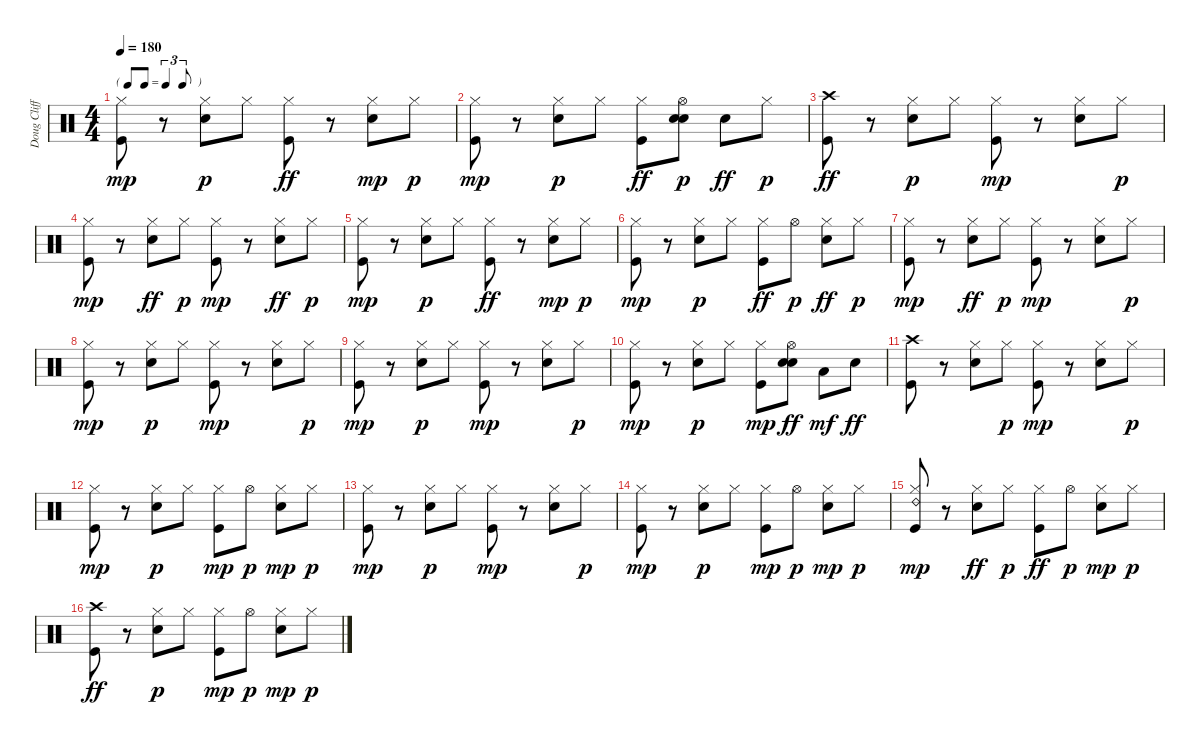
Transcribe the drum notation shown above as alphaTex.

\track ("Doug Clifford" "Doug Cliff") {instrument percussion}
\staff {score}
\articulation defaults
\ts (4 4)
\tf triplet8th
\tempo 180
\clef neutral
\ks c
("Kick (hit)" "Hi-Hat (closed)").8{dy mp} r.8 ("Snare (hit) 2" "Hi-Hat (closed)").8{dy p} "Hi-Hat (closed)".8 ("Hi-Hat (closed)" "Kick (hit)").8{dy ff} r.8 ("Snare (hit) 2" "Hi-Hat (closed)").8{dy mp} "Hi-Hat (closed)".8{dy p} |
("Kick (hit)" "Hi-Hat (closed)").8{dy mp} r.8 ("Snare (hit) 2" "Hi-Hat (closed)").8{dy p} "Hi-Hat (closed)".8 ("Hi-Hat (closed)" "Kick (hit)").8{dy ff} ("Snare (hit) 2" "Hi-Hat (open)" "Snare (hit) 2").8{dy p} "Snare (hit) 2".8{dy ff} "Hi-Hat (closed)".8{dy p} |
("Crash high (hit)" "Kick (hit)").8{dy ff} r.8 ("Snare (hit) 2" "Hi-Hat (closed)").8{dy p} "Hi-Hat (closed)".8 ("Kick (hit)" "Hi-Hat (closed)").8{dy mp} r.8 ("Snare (hit) 2" "Hi-Hat (closed)").8 "Hi-Hat (closed)".8{dy p} |
("Kick (hit)" "Hi-Hat (closed)").8{dy mp} r.8 ("Hi-Hat (closed)" "Snare (hit) 2").8{dy ff} "Hi-Hat (closed)".8{dy p} ("Kick (hit)" "Hi-Hat (closed)").8{dy mp} r.8 ("Hi-Hat (closed)" "Snare (hit) 2").8{dy ff} "Hi-Hat (closed)".8{dy p} |
("Kick (hit)" "Hi-Hat (closed)").8{dy mp} r.8 ("Snare (hit) 2" "Hi-Hat (closed)").8{dy p} "Hi-Hat (closed)".8 ("Hi-Hat (closed)" "Kick (hit)").8{dy ff} r.8 ("Snare (hit) 2" "Hi-Hat (closed)").8{dy mp} "Hi-Hat (closed)".8{dy p} |
("Kick (hit)" "Hi-Hat (closed)").8{dy mp} r.8 ("Snare (hit) 2" "Hi-Hat (closed)").8{dy p} "Hi-Hat (closed)".8 ("Hi-Hat (closed)" "Kick (hit)").8{dy ff} "Hi-Hat (open)".8{dy p} ("Hi-Hat (closed)" "Snare (hit) 2").8{dy ff} "Hi-Hat (closed)".8{dy p} |
("Kick (hit)" "Hi-Hat (closed)").8{dy mp} r.8 ("Hi-Hat (closed)" "Snare (hit) 2").8{dy ff} "Hi-Hat (closed)".8{dy p} ("Kick (hit)" "Hi-Hat (closed)").8{dy mp} r.8 ("Snare (hit) 2" "Hi-Hat (closed)").8 "Hi-Hat (closed)".8{dy p} |
("Kick (hit)" "Hi-Hat (closed)").8{dy mp} r.8 ("Snare (hit) 2" "Hi-Hat (closed)").8{dy p} "Hi-Hat (closed)".8 ("Kick (hit)" "Hi-Hat (closed)").8{dy mp} r.8 ("Snare (hit) 2" "Hi-Hat (closed)").8 "Hi-Hat (closed)".8{dy p} |
("Kick (hit)" "Hi-Hat (closed)").8{dy mp} r.8 ("Snare (hit) 2" "Hi-Hat (closed)").8{dy p} "Hi-Hat (closed)".8 ("Kick (hit)" "Hi-Hat (closed)").8{dy mp} r.8 ("Snare (hit) 2" "Hi-Hat (closed)").8 "Hi-Hat (closed)".8{dy p} |
("Kick (hit)" "Hi-Hat (closed)").8{dy mp} r.8 ("Snare (hit) 2" "Hi-Hat (closed)").8{dy p} "Hi-Hat (closed)".8 ("Kick (hit)" "Hi-Hat (closed)").8{dy mp} ("Snare (hit) 2" "Hi-Hat (open)" "Snare (hit) 2").8{dy ff} "Low Tom (hit)".8{dy mf} "Snare (hit) 2".8{dy ff} |
("Crash high (hit)" "Kick (hit)").8 r.8 ("Hi-Hat (closed)" "Snare (hit) 2").8 "Hi-Hat (closed)".8{dy p} ("Kick (hit)" "Hi-Hat (closed)").8{dy mp} r.8 ("Snare (hit) 2" "Hi-Hat (closed)").8 "Hi-Hat (closed)".8{dy p} |
("Kick (hit)" "Hi-Hat (closed)").8{dy mp} r.8 ("Snare (hit) 2" "Hi-Hat (closed)").8{dy p} "Hi-Hat (closed)".8 ("Kick (hit)" "Hi-Hat (closed)").8{dy mp} "Hi-Hat (open)".8{dy p} ("Snare (hit) 2" "Hi-Hat (closed)").8{dy mp} "Hi-Hat (closed)".8{dy p} |
("Kick (hit)" "Hi-Hat (closed)").8{dy mp} r.8 ("Snare (hit) 2" "Hi-Hat (closed)").8{dy p} "Hi-Hat (closed)".8 ("Kick (hit)" "Hi-Hat (closed)").8{dy mp} r.8 ("Snare (hit) 2" "Hi-Hat (closed)").8 "Hi-Hat (closed)".8{dy p} |
("Kick (hit)" "Hi-Hat (closed)").8{dy mp} r.8 ("Snare (hit) 2" "Hi-Hat (closed)").8{dy p} "Hi-Hat (closed)".8 ("Kick (hit)" "Hi-Hat (closed)").8{dy mp} "Hi-Hat (open)".8{dy p} ("Snare (hit) 2" "Hi-Hat (closed)").8{dy mp} "Hi-Hat (closed)".8{dy p} |
("Ride (bell) 2" "Kick (hit)" "Hi-Hat (closed)").8{dy mp} r.8 ("Hi-Hat (closed)" "Snare (hit) 2").8{dy ff} "Hi-Hat (closed)".8{dy p} ("Hi-Hat (closed)" "Kick (hit)").8{dy ff} "Hi-Hat (open)".8{dy p} ("Snare (hit) 2" "Hi-Hat (closed)").8{dy mp} "Hi-Hat (closed)".8{dy p} |
("Crash high (hit)" "Kick (hit)").8{dy ff} r.8 ("Snare (hit) 2" "Hi-Hat (closed)").8{dy p} "Hi-Hat (closed)".8 ("Kick (hit)" "Hi-Hat (closed)").8{dy mp} "Hi-Hat (open)".8{dy p} ("Snare (hit) 2" "Hi-Hat (closed)").8{dy mp} "Hi-Hat (closed)".8{dy p}
